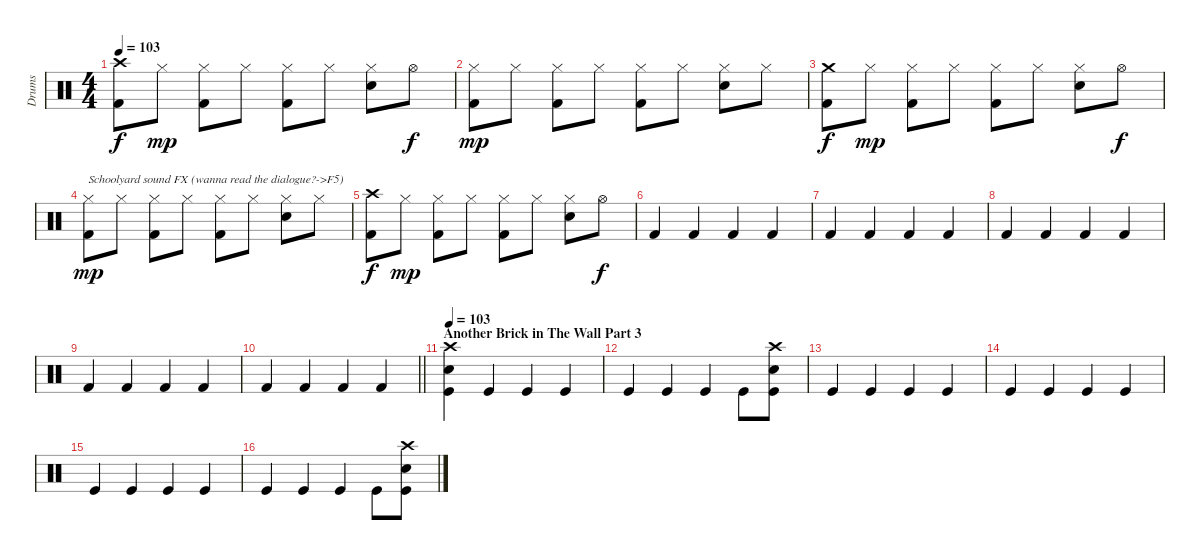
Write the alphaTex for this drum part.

\track ("Drums" "Drums") {instrument percussion}
\staff {score}
\articulation defaults
\ts (4 4)
\tempo 103
\clef neutral
\ks c
("Crash high (hit)" "Kick (hit) 2").8{dy f} "Hi-Hat (closed)".8{dy mp} ("Hi-Hat (closed)" "Kick (hit) 2").8 "Hi-Hat (closed)".8 ("Hi-Hat (closed)" "Kick (hit) 2").8 "Hi-Hat (closed)".8 ("Hi-Hat (closed)" "Snare (hit) 2").8 "Hi-Hat (open)".8{dy f} |
("Hi-Hat (closed)" "Kick (hit) 2").8{dy mp} "Hi-Hat (closed)".8 ("Hi-Hat (closed)" "Kick (hit) 2").8 "Hi-Hat (closed)".8 ("Hi-Hat (closed)" "Kick (hit) 2").8 "Hi-Hat (closed)".8 ("Hi-Hat (closed)" "Snare (hit) 2").8 "Hi-Hat (closed)".8 |
("Crash medium (hit)" "Kick (hit) 2").8{dy f} "Hi-Hat (closed)".8{dy mp} ("Hi-Hat (closed)" "Kick (hit) 2").8 "Hi-Hat (closed)".8 ("Hi-Hat (closed)" "Kick (hit) 2").8 "Hi-Hat (closed)".8 ("Hi-Hat (closed)" "Snare (hit) 2").8 "Hi-Hat (open)".8{dy f} |
("Hi-Hat (closed)" "Kick (hit) 2").8{txt "Schoolyard sound FX (wanna read the dialogue?->F5)" dy mp} "Hi-Hat (closed)".8 ("Hi-Hat (closed)" "Kick (hit) 2").8 "Hi-Hat (closed)".8 ("Hi-Hat (closed)" "Kick (hit) 2").8 "Hi-Hat (closed)".8 ("Hi-Hat (closed)" "Snare (hit) 2").8 "Hi-Hat (closed)".8 |
("Crash high (hit)" "Kick (hit) 2").8{dy f} "Hi-Hat (closed)".8{dy mp} ("Hi-Hat (closed)" "Kick (hit) 2").8 "Hi-Hat (closed)".8 ("Hi-Hat (closed)" "Kick (hit) 2").8 "Hi-Hat (closed)".8 ("Hi-Hat (closed)" "Snare (hit) 2").8 "Hi-Hat (open)".8{dy f} |
"Kick (hit) 2".4 "Kick (hit) 2".4 "Kick (hit) 2".4 "Kick (hit) 2".4 |
"Kick (hit) 2".4 "Kick (hit) 2".4 "Kick (hit) 2".4 "Kick (hit) 2".4 |
"Kick (hit) 2".4 "Kick (hit) 2".4 "Kick (hit) 2".4 "Kick (hit) 2".4 |
"Kick (hit) 2".4 "Kick (hit) 2".4 "Kick (hit) 2".4 "Kick (hit) 2".4 |
\barLineRight lightlight "Kick (hit) 2".4 "Kick (hit) 2".4 "Kick (hit) 2".4 "Kick (hit) 2".4
|
\section ("" "Another Brick in The Wall Part 3")
\tempo 103
("Crash high (hit)" "Snare (hit) 2" "Kick (hit)").4 "Kick (hit)".4 "Kick (hit)".4 "Kick (hit)".4 |
"Kick (hit)".4 "Kick (hit)".4 "Kick (hit)".4 "Kick (hit)".8 ("Crash high (hit)" "Snare (hit) 2" "Kick (hit)").8 |
"Kick (hit)".4 "Kick (hit)".4 "Kick (hit)".4 "Kick (hit)".4 |
"Kick (hit)".4 "Kick (hit)".4 "Kick (hit)".4 "Kick (hit)".4 |
"Kick (hit)".4 "Kick (hit)".4 "Kick (hit)".4 "Kick (hit)".4 |
"Kick (hit)".4 "Kick (hit)".4 "Kick (hit)".4 "Kick (hit)".8 ("Crash high (hit)" "Snare (hit) 2" "Kick (hit)").8
